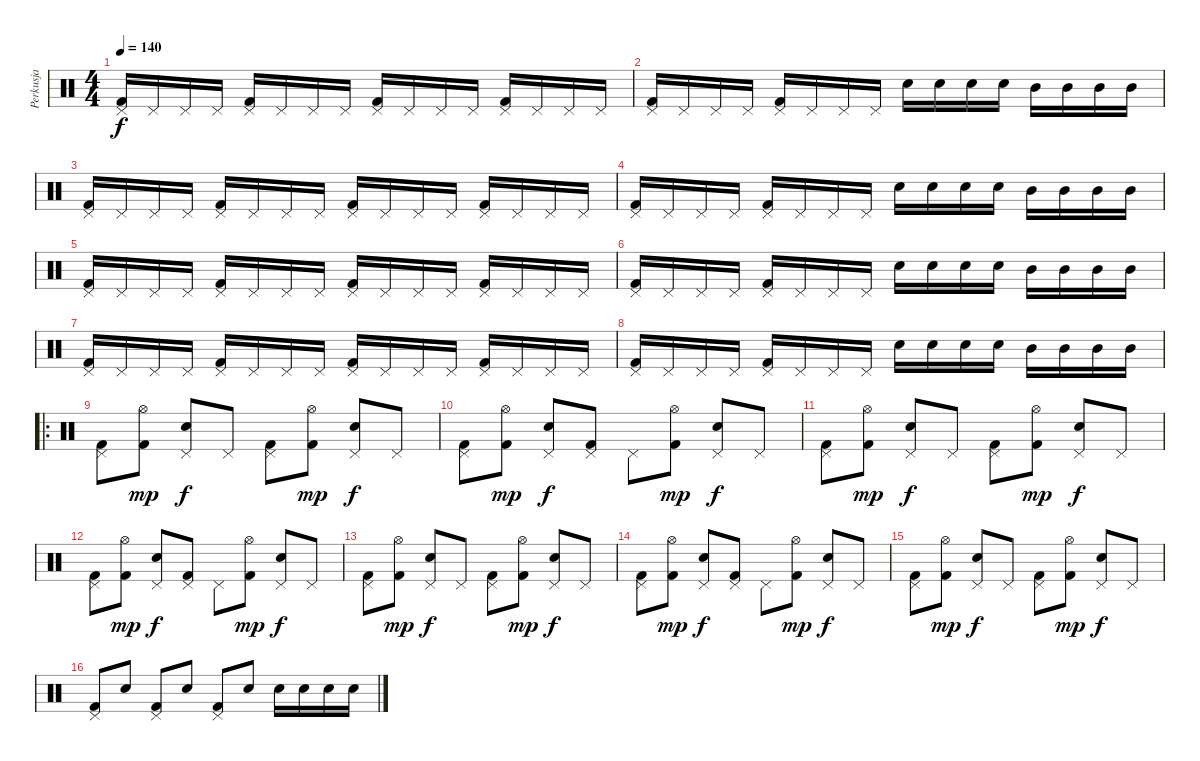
\track ("Perkusja" "Perkusja") {instrument percussion}
\staff {score}
\articulation defaults
\ts (4 4)
\tempo 140
\clef neutral
\ks c
("Pedal Hi-Hat (hit)" "Kick (hit) 2").16{dy f} "Pedal Hi-Hat (hit)".16 "Pedal Hi-Hat (hit)".16 "Pedal Hi-Hat (hit)".16 ("Pedal Hi-Hat (hit)" "Kick (hit) 2").16 "Pedal Hi-Hat (hit)".16 "Pedal Hi-Hat (hit)".16 "Pedal Hi-Hat (hit)".16 ("Pedal Hi-Hat (hit)" "Kick (hit) 2").16 "Pedal Hi-Hat (hit)".16 "Pedal Hi-Hat (hit)".16 "Pedal Hi-Hat (hit)".16 ("Pedal Hi-Hat (hit)" "Kick (hit) 2").16 "Pedal Hi-Hat (hit)".16 "Pedal Hi-Hat (hit)".16 "Pedal Hi-Hat (hit)".16 |
("Pedal Hi-Hat (hit)" "Kick (hit) 2").16 "Pedal Hi-Hat (hit)".16 "Pedal Hi-Hat (hit)".16 "Pedal Hi-Hat (hit)".16 ("Pedal Hi-Hat (hit)" "Kick (hit) 2").16 "Pedal Hi-Hat (hit)".16 "Pedal Hi-Hat (hit)".16 "Pedal Hi-Hat (hit)".16 "Snare (hit) 2".16 "Snare (hit) 2".16 "Snare (hit) 2".16 "Snare (hit) 2".16 "Mid Tom (hit)".16 "Mid Tom (hit)".16 "Mid Tom (hit)".16 "Mid Tom (hit)".16 |
("Pedal Hi-Hat (hit)" "Kick (hit) 2").16 "Pedal Hi-Hat (hit)".16 "Pedal Hi-Hat (hit)".16 "Pedal Hi-Hat (hit)".16 ("Pedal Hi-Hat (hit)" "Kick (hit) 2").16 "Pedal Hi-Hat (hit)".16 "Pedal Hi-Hat (hit)".16 "Pedal Hi-Hat (hit)".16 ("Pedal Hi-Hat (hit)" "Kick (hit) 2").16 "Pedal Hi-Hat (hit)".16 "Pedal Hi-Hat (hit)".16 "Pedal Hi-Hat (hit)".16 ("Pedal Hi-Hat (hit)" "Kick (hit) 2").16 "Pedal Hi-Hat (hit)".16 "Pedal Hi-Hat (hit)".16 "Pedal Hi-Hat (hit)".16 |
("Pedal Hi-Hat (hit)" "Kick (hit) 2").16 "Pedal Hi-Hat (hit)".16 "Pedal Hi-Hat (hit)".16 "Pedal Hi-Hat (hit)".16 ("Pedal Hi-Hat (hit)" "Kick (hit) 2").16 "Pedal Hi-Hat (hit)".16 "Pedal Hi-Hat (hit)".16 "Pedal Hi-Hat (hit)".16 "Snare (hit) 2".16 "Snare (hit) 2".16 "Snare (hit) 2".16 "Snare (hit) 2".16 "Mid Tom (hit)".16 "Mid Tom (hit)".16 "Mid Tom (hit)".16 "Mid Tom (hit)".16 |
("Pedal Hi-Hat (hit)" "Kick (hit) 2").16 "Pedal Hi-Hat (hit)".16 "Pedal Hi-Hat (hit)".16 "Pedal Hi-Hat (hit)".16 ("Pedal Hi-Hat (hit)" "Kick (hit) 2").16 "Pedal Hi-Hat (hit)".16 "Pedal Hi-Hat (hit)".16 "Pedal Hi-Hat (hit)".16 ("Pedal Hi-Hat (hit)" "Kick (hit) 2").16 "Pedal Hi-Hat (hit)".16 "Pedal Hi-Hat (hit)".16 "Pedal Hi-Hat (hit)".16 ("Pedal Hi-Hat (hit)" "Kick (hit) 2").16 "Pedal Hi-Hat (hit)".16 "Pedal Hi-Hat (hit)".16 "Pedal Hi-Hat (hit)".16 |
("Pedal Hi-Hat (hit)" "Kick (hit) 2").16 "Pedal Hi-Hat (hit)".16 "Pedal Hi-Hat (hit)".16 "Pedal Hi-Hat (hit)".16 ("Pedal Hi-Hat (hit)" "Kick (hit) 2").16 "Pedal Hi-Hat (hit)".16 "Pedal Hi-Hat (hit)".16 "Pedal Hi-Hat (hit)".16 "Snare (hit) 2".16 "Snare (hit) 2".16 "Snare (hit) 2".16 "Snare (hit) 2".16 "Mid Tom (hit)".16 "Mid Tom (hit)".16 "Mid Tom (hit)".16 "Mid Tom (hit)".16 |
("Pedal Hi-Hat (hit)" "Kick (hit) 2").16 "Pedal Hi-Hat (hit)".16 "Pedal Hi-Hat (hit)".16 "Pedal Hi-Hat (hit)".16 ("Pedal Hi-Hat (hit)" "Kick (hit) 2").16 "Pedal Hi-Hat (hit)".16 "Pedal Hi-Hat (hit)".16 "Pedal Hi-Hat (hit)".16 ("Pedal Hi-Hat (hit)" "Kick (hit) 2").16 "Pedal Hi-Hat (hit)".16 "Pedal Hi-Hat (hit)".16 "Pedal Hi-Hat (hit)".16 ("Pedal Hi-Hat (hit)" "Kick (hit) 2").16 "Pedal Hi-Hat (hit)".16 "Pedal Hi-Hat (hit)".16 "Pedal Hi-Hat (hit)".16 |
("Pedal Hi-Hat (hit)" "Kick (hit) 2").16 "Pedal Hi-Hat (hit)".16 "Pedal Hi-Hat (hit)".16 "Pedal Hi-Hat (hit)".16 ("Pedal Hi-Hat (hit)" "Kick (hit) 2").16 "Pedal Hi-Hat (hit)".16 "Pedal Hi-Hat (hit)".16 "Pedal Hi-Hat (hit)".16 "Snare (hit) 2".16 "Snare (hit) 2".16 "Snare (hit) 2".16 "Snare (hit) 2".16 "Mid Tom (hit)".16 "Mid Tom (hit)".16 "Mid Tom (hit)".16 "Mid Tom (hit)".16 |
\ro
("Pedal Hi-Hat (hit)" "Kick (hit) 2").8 ("Hi-Hat (open)" "Kick (hit) 2").8{dy mp} ("Pedal Hi-Hat (hit)" "Snare (hit) 2").8{dy f} "Pedal Hi-Hat (hit)".8 ("Pedal Hi-Hat (hit)" "Kick (hit) 2").8 ("Hi-Hat (open)" "Kick (hit) 2").8{dy mp} ("Pedal Hi-Hat (hit)" "Snare (hit) 2").8{dy f} "Pedal Hi-Hat (hit)".8 |
("Pedal Hi-Hat (hit)" "Kick (hit) 2").8 ("Hi-Hat (open)" "Kick (hit) 2").8{dy mp} ("Pedal Hi-Hat (hit)" "Snare (hit) 2").8{dy f} ("Pedal Hi-Hat (hit)" "Kick (hit) 2").8 "Pedal Hi-Hat (hit)".8 ("Hi-Hat (open)" "Kick (hit) 2").8{dy mp} ("Pedal Hi-Hat (hit)" "Snare (hit) 2").8{dy f} "Pedal Hi-Hat (hit)".8 |
("Pedal Hi-Hat (hit)" "Kick (hit) 2").8 ("Hi-Hat (open)" "Kick (hit) 2").8{dy mp} ("Pedal Hi-Hat (hit)" "Snare (hit) 2").8{dy f} "Pedal Hi-Hat (hit)".8 ("Pedal Hi-Hat (hit)" "Kick (hit) 2").8 ("Hi-Hat (open)" "Kick (hit) 2").8{dy mp} ("Pedal Hi-Hat (hit)" "Snare (hit) 2").8{dy f} "Pedal Hi-Hat (hit)".8 |
("Pedal Hi-Hat (hit)" "Kick (hit) 2").8 ("Hi-Hat (open)" "Kick (hit) 2").8{dy mp} ("Pedal Hi-Hat (hit)" "Snare (hit) 2").8{dy f} ("Pedal Hi-Hat (hit)" "Kick (hit) 2").8 "Pedal Hi-Hat (hit)".8 ("Hi-Hat (open)" "Kick (hit) 2").8{dy mp} ("Pedal Hi-Hat (hit)" "Snare (hit) 2").8{dy f} "Pedal Hi-Hat (hit)".8 |
("Pedal Hi-Hat (hit)" "Kick (hit) 2").8 ("Hi-Hat (open)" "Kick (hit) 2").8{dy mp} ("Pedal Hi-Hat (hit)" "Snare (hit) 2").8{dy f} "Pedal Hi-Hat (hit)".8 ("Pedal Hi-Hat (hit)" "Kick (hit) 2").8 ("Hi-Hat (open)" "Kick (hit) 2").8{dy mp} ("Pedal Hi-Hat (hit)" "Snare (hit) 2").8{dy f} "Pedal Hi-Hat (hit)".8 |
("Pedal Hi-Hat (hit)" "Kick (hit) 2").8 ("Hi-Hat (open)" "Kick (hit) 2").8{dy mp} ("Pedal Hi-Hat (hit)" "Snare (hit) 2").8{dy f} ("Pedal Hi-Hat (hit)" "Kick (hit) 2").8 "Pedal Hi-Hat (hit)".8 ("Hi-Hat (open)" "Kick (hit) 2").8{dy mp} ("Pedal Hi-Hat (hit)" "Snare (hit) 2").8{dy f} "Pedal Hi-Hat (hit)".8 |
("Pedal Hi-Hat (hit)" "Kick (hit) 2").8 ("Hi-Hat (open)" "Kick (hit) 2").8{dy mp} ("Pedal Hi-Hat (hit)" "Snare (hit) 2").8{dy f} "Pedal Hi-Hat (hit)".8 ("Pedal Hi-Hat (hit)" "Kick (hit) 2").8 ("Hi-Hat (open)" "Kick (hit) 2").8{dy mp} ("Pedal Hi-Hat (hit)" "Snare (hit) 2").8{dy f} "Pedal Hi-Hat (hit)".8 |
("Pedal Hi-Hat (hit)" "Kick (hit) 2").8 "Snare (hit) 2".8 ("Pedal Hi-Hat (hit)" "Kick (hit) 2").8 "Snare (hit) 2".8 ("Pedal Hi-Hat (hit)" "Kick (hit) 2").8 "Snare (hit) 2".8 "Snare (hit) 2".16 "Snare (hit) 2".16 "Snare (hit) 2".16 "Snare (hit) 2".16
